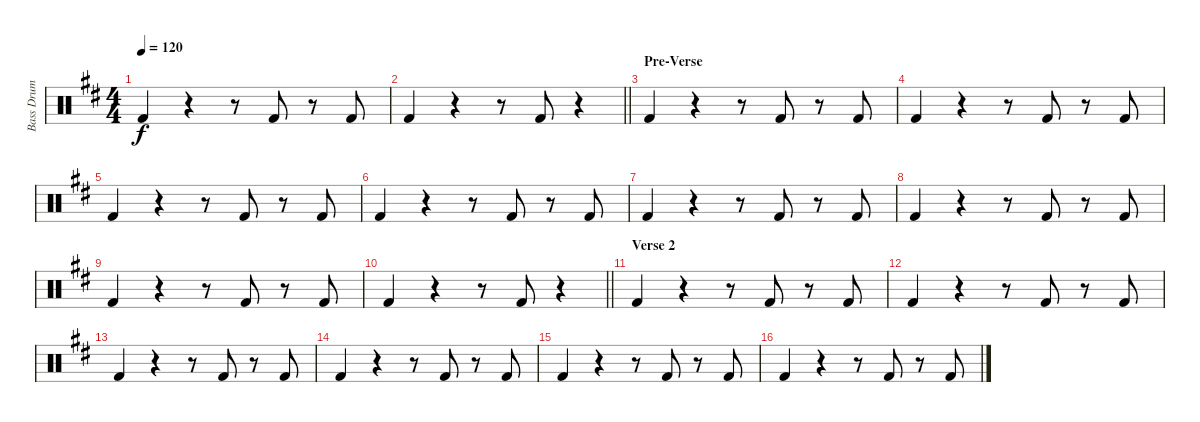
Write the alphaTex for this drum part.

\track ("Bass Drum" "Bass Drum") {instrument percussion}
\staff {score}
\articulation defaults
\ts (4 4)
\tempo 120
\clef neutral
\ks d "Kick (hit) 2".4{dy f}
r.4 r.8 "Kick (hit) 2".8 r.8 "Kick (hit) 2".8 |
\barLineRight lightlight "Kick (hit) 2".4
r.4 r.8 "Kick (hit) 2".8 r.4 |
\section ("" "Pre-Verse")
"Kick (hit) 2".4 r.4 r.8 "Kick (hit) 2".8 r.8 "Kick (hit) 2".8 |
"Kick (hit) 2".4 r.4 r.8 "Kick (hit) 2".8 r.8 "Kick (hit) 2".8 |
"Kick (hit) 2".4 r.4 r.8 "Kick (hit) 2".8 r.8 "Kick (hit) 2".8 |
"Kick (hit) 2".4 r.4 r.8 "Kick (hit) 2".8 r.8 "Kick (hit) 2".8 |
"Kick (hit) 2".4 r.4 r.8 "Kick (hit) 2".8 r.8 "Kick (hit) 2".8 |
"Kick (hit) 2".4 r.4 r.8 "Kick (hit) 2".8 r.8 "Kick (hit) 2".8 |
"Kick (hit) 2".4 r.4 r.8 "Kick (hit) 2".8 r.8 "Kick (hit) 2".8 |
\barLineRight lightlight "Kick (hit) 2".4
r.4 r.8 "Kick (hit) 2".8 r.4 |
\section ("" "Verse 2")
"Kick (hit) 2".4 r.4 r.8 "Kick (hit) 2".8 r.8 "Kick (hit) 2".8 |
"Kick (hit) 2".4 r.4 r.8 "Kick (hit) 2".8 r.8 "Kick (hit) 2".8 |
"Kick (hit) 2".4 r.4 r.8 "Kick (hit) 2".8 r.8 "Kick (hit) 2".8 |
"Kick (hit) 2".4 r.4 r.8 "Kick (hit) 2".8 r.8 "Kick (hit) 2".8 |
"Kick (hit) 2".4 r.4 r.8 "Kick (hit) 2".8 r.8 "Kick (hit) 2".8 |
"Kick (hit) 2".4 r.4 r.8 "Kick (hit) 2".8 r.8 "Kick (hit) 2".8
